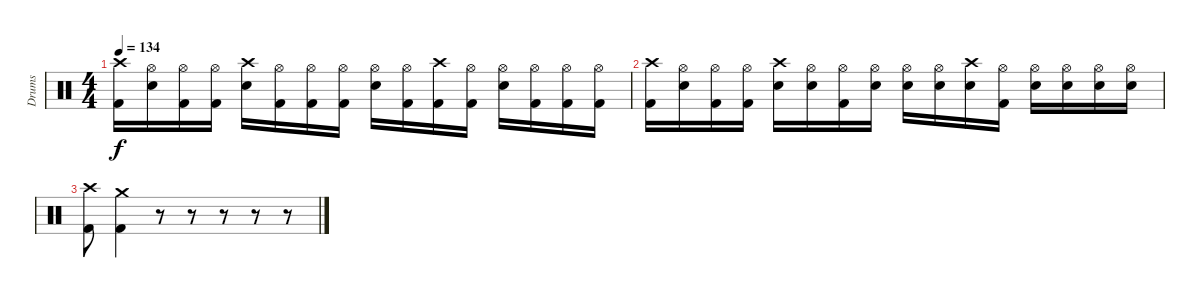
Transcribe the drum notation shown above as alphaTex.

\track ("Drums" "Drums") {instrument percussion}
\staff {score}
\articulation defaults
\ts (4 4)
\tempo 134
\clef neutral
\ks c
("Crash high (hit)" "Kick (hit) 2").16{dy f} ("Hi-Hat (open)" "Snare (hit) 2").16 ("Hi-Hat (open)" "Kick (hit) 2").16 ("Hi-Hat (open)" "Kick (hit) 2").16 ("Crash high (hit)" "Snare (hit) 2").16 ("Hi-Hat (open)" "Kick (hit) 2").16 ("Hi-Hat (open)" "Kick (hit) 2").16 ("Hi-Hat (open)" "Kick (hit) 2").16 ("Hi-Hat (open)" "Snare (hit) 2").16 ("Hi-Hat (open)" "Kick (hit) 2").16 ("Crash high (hit)" "Kick (hit) 2").16 ("Hi-Hat (open)" "Kick (hit) 2").16 ("Hi-Hat (open)" "Snare (hit) 2").16 ("Hi-Hat (open)" "Kick (hit) 2").16 ("Hi-Hat (open)" "Kick (hit) 2").16 ("Hi-Hat (open)" "Kick (hit) 2").16 |
("Crash high (hit)" "Kick (hit) 2").16 ("Hi-Hat (open)" "Snare (hit) 2").16 ("Hi-Hat (open)" "Kick (hit) 2").16 ("Hi-Hat (open)" "Kick (hit) 2").16 ("Crash high (hit)" "Snare (hit) 2").16 ("Hi-Hat (open)" "Snare (hit) 2").16 ("Hi-Hat (open)" "Kick (hit) 2").16 ("Hi-Hat (open)" "Snare (hit) 2").16 ("Hi-Hat (open)" "Snare (hit) 2").16 ("Hi-Hat (open)" "Snare (hit) 2").16 ("Crash high (hit)" "Snare (hit) 2").16 ("Hi-Hat (open)" "Kick (hit) 2").16 ("Hi-Hat (open)" "Snare (hit) 2").16 ("Hi-Hat (open)" "Snare (hit) 2").16 ("Hi-Hat (open)" "Snare (hit) 2").16 ("Hi-Hat (open)" "Snare (hit) 2").16 |
("Crash high (hit)" "Kick (hit) 2").8 ("Crash medium (hit)" "Kick (hit) 2").4 r.8 r.8 r.8 r.8 r.8
